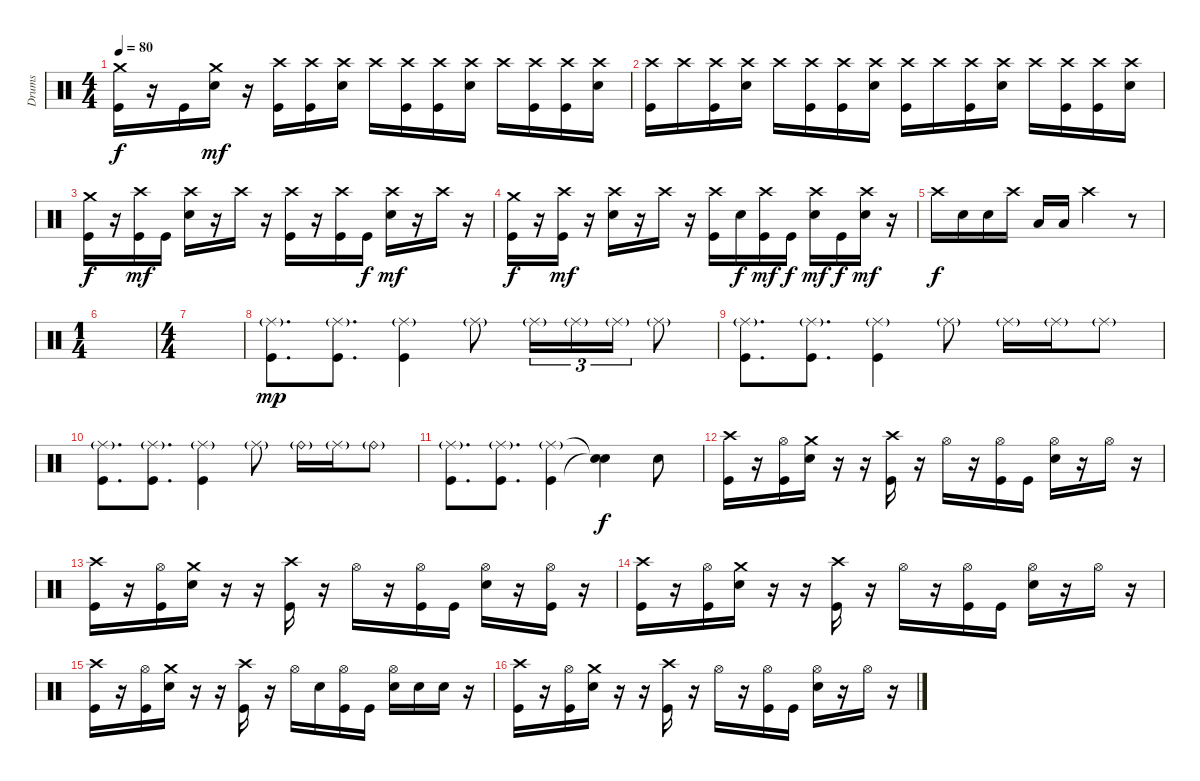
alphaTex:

\track ("Drums" "Drums") {instrument percussion}
\staff {score}
\articulation defaults
\ts (4 4)
\tempo 80
\clef neutral
\ks c
("Crash medium (hit)" "Kick (hit)").16{dy f} r.16 "Kick (hit)".16 ("Crash medium (hit)" "Snare (hit) 2").16{dy mf} r.16 ("Crash high (hit)" "Kick (hit)").16 ("Crash high (hit)" "Kick (hit)").16 ("Crash high (hit)" "Snare (hit) 2").16 "Crash high (hit)".16 ("Crash high (hit)" "Kick (hit)").16 ("Crash high (hit)" "Kick (hit)").16 ("Crash high (hit)" "Snare (hit) 2").16 "Crash high (hit)".16 ("Crash high (hit)" "Kick (hit)").16 ("Crash high (hit)" "Kick (hit)").16 ("Crash high (hit)" "Snare (hit) 2").16 |
("Crash high (hit)" "Kick (hit)").16 "Crash high (hit)".16 ("Crash high (hit)" "Kick (hit)").16 ("Crash high (hit)" "Snare (hit) 2").16 "Crash high (hit)".16 ("Crash high (hit)" "Kick (hit)").16 ("Crash high (hit)" "Kick (hit)").16 ("Crash high (hit)" "Snare (hit) 2").16 ("Crash high (hit)" "Kick (hit)").16 "Crash high (hit)".16 ("Crash high (hit)" "Kick (hit)").16 ("Crash high (hit)" "Snare (hit) 2").16 "Crash high (hit)".16 ("Crash high (hit)" "Kick (hit)").16 ("Crash high (hit)" "Kick (hit)").16 ("Crash high (hit)" "Snare (hit) 2").16 |
("Crash medium (hit)" "Kick (hit)").16{dy f} r.16 ("Crash high (hit)" "Kick (hit)").16{dy mf} "Kick (hit)".16 ("Crash high (hit)" "Snare (hit) 2").16 r.16 "Crash high (hit)".16 r.16 ("Crash high (hit)" "Kick (hit)").16 r.16 ("Crash high (hit)" "Kick (hit)").16 "Kick (hit)".16{dy f} ("Crash high (hit)" "Snare (hit) 2").16{dy mf} r.16 "Crash high (hit)".16 r.16 |
("Crash medium (hit)" "Kick (hit)").16{dy f} r.16 ("Crash high (hit)" "Kick (hit)").16{dy mf} r.16 ("Crash high (hit)" "Snare (hit) 2").16 r.16 "Crash high (hit)".16 r.16 ("Crash high (hit)" "Kick (hit)").16 "Snare (hit) 2".16{dy f} ("Crash high (hit)" "Kick (hit)").16{dy mf} "Kick (hit)".16{dy f} ("Crash high (hit)" "Snare (hit) 2").16{dy mf} "Kick (hit)".16{dy f} ("Crash high (hit)" "Snare (hit) 2").16{dy mf} r.16 |
"Crash high (hit)".16{dy f} "Snare (hit) 2".16 "Snare (hit) 2".16 "Crash high (hit)".16 "Low Tom (hit)".16 "Low Tom (hit)".16 "Crash high (hit)".2 r.8 |
\ts (1 4)
|
\ts (4 4)
|
("Ride (middle)"{g} "Kick (hit)").8{d dy mp} ("Ride (middle)"{g} "Kick (hit)").8{d} ("Ride (middle)"{g} "Kick (hit)").4 "Ride (middle)"{g}.8 "Ride (middle)"{g}.16{tu (3 2)} "Ride (middle)"{g}.16{tu (3 2)} "Ride (middle)"{g}.16{tu (3 2)} "Ride (middle)"{g}.8 |
("Ride (middle)"{g} "Kick (hit)").8{d} ("Ride (middle)"{g} "Kick (hit)").8{d} ("Ride (middle)"{g} "Kick (hit)").4 "Ride (middle)"{g}.8 "Ride (middle)"{g}.16 "Ride (middle)"{g}.16 "Ride (middle)"{g}.8 |
("Ride (middle)"{g} "Kick (hit)").8{d} ("Ride (middle)"{g} "Kick (hit)").8{d} ("Ride (middle)"{g} "Kick (hit)").4 "Ride (middle)"{g}.8 "Ride (bell)"{g}.16 "Ride (middle)"{g}.16 "Ride (bell)"{g}.8 |
("Ride (middle)"{g} "Kick (hit)").8{d} ("Ride (middle)"{g} "Kick (hit)").8{d} ("Ride (middle)"{g} "Kick (hit)").4 ("Snare (hit)"{t} "Snare (hit)"{t}).4{dy f} "Snare (hit) 2".8 |
("Crash high (hit)" "Kick (hit)").16 r.16 ("Hi-Hat (open)" "Kick (hit)").16 ("Crash medium (hit)" "Snare (hit) 2").16 r.16 r.16 ("Crash high (hit)" "Kick (hit)").16 r.16 "Hi-Hat (open)".16 r.16 ("Hi-Hat (open)" "Kick (hit)").16 "Kick (hit)".16 ("Hi-Hat (open)" "Snare (hit) 2").16 r.16 "Hi-Hat (open)".16 r.16 |
("Crash high (hit)" "Kick (hit)").16 r.16 ("Hi-Hat (open)" "Kick (hit)").16 ("Crash medium (hit)" "Snare (hit) 2").16 r.16 r.16 ("Crash high (hit)" "Kick (hit)").16 r.16 "Hi-Hat (open)".16 r.16 ("Hi-Hat (open)" "Kick (hit)").16 "Kick (hit)".16 ("Hi-Hat (open)" "Snare (hit) 2").16 r.16 ("Hi-Hat (open)" "Kick (hit)").16 r.16 |
("Crash high (hit)" "Kick (hit)").16 r.16 ("Hi-Hat (open)" "Kick (hit)").16 ("Crash medium (hit)" "Snare (hit) 2").16 r.16 r.16 ("Crash high (hit)" "Kick (hit)").16 r.16 "Hi-Hat (open)".16 r.16 ("Hi-Hat (open)" "Kick (hit)").16 "Kick (hit)".16 ("Hi-Hat (open)" "Snare (hit) 2").16 r.16 "Hi-Hat (open)".16 r.16 |
("Crash high (hit)" "Kick (hit)").16 r.16 ("Hi-Hat (open)" "Kick (hit)").16 ("Crash medium (hit)" "Snare (hit) 2").16 r.16 r.16 ("Crash high (hit)" "Kick (hit)").16 r.16 "Hi-Hat (open)".16 "Snare (hit) 2".16 ("Hi-Hat (open)" "Kick (hit)").16 "Kick (hit)".16 ("Hi-Hat (open)" "Snare (hit) 2").16 "Snare (hit) 2".16 "Snare (hit) 2".16 r.16 |
("Crash high (hit)" "Kick (hit)").16 r.16 ("Hi-Hat (open)" "Kick (hit)").16 ("Crash medium (hit)" "Snare (hit) 2").16 r.16 r.16 ("Crash high (hit)" "Kick (hit)").16 r.16 "Hi-Hat (open)".16 r.16 ("Hi-Hat (open)" "Kick (hit)").16 "Kick (hit)".16 ("Hi-Hat (open)" "Snare (hit) 2").16 r.16 "Hi-Hat (open)".16 r.16
